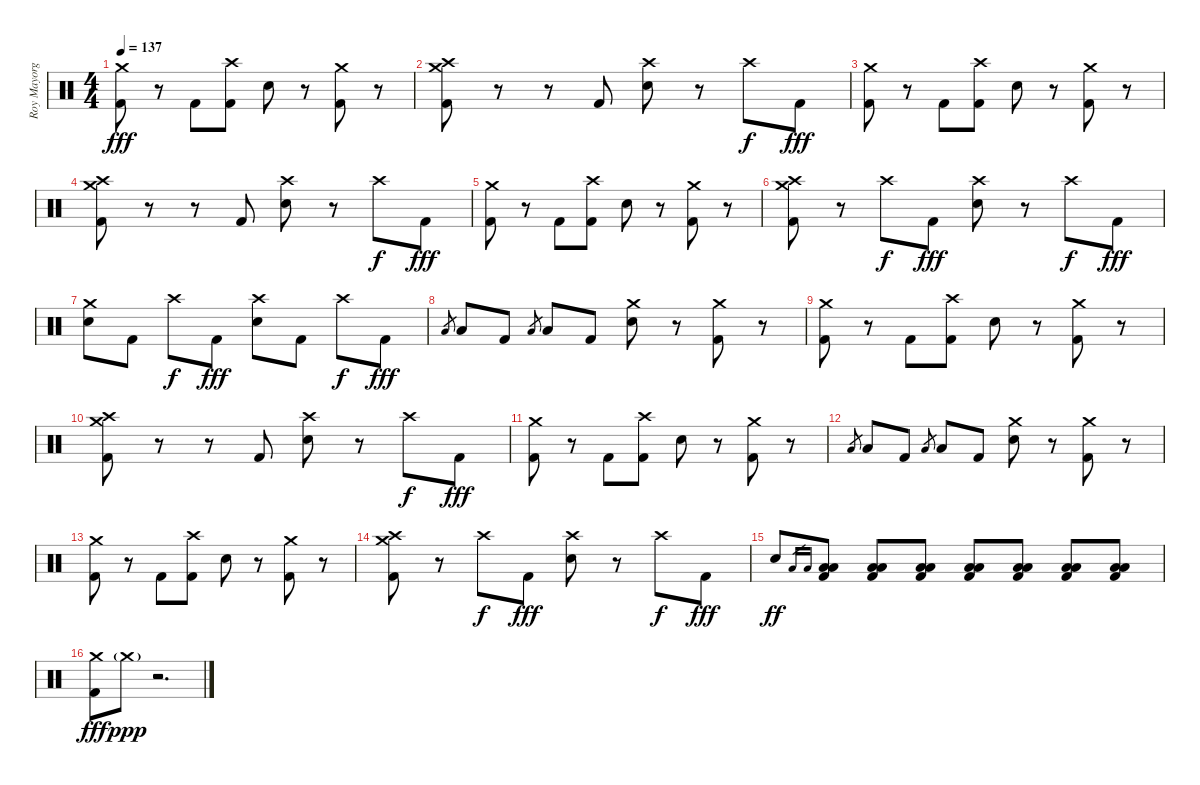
\track ("Roy Mayorga (Drums)" "Roy Mayorg") {instrument percussion}
\staff {score}
\articulation defaults
\ts (4 4)
\tempo 137
\clef neutral
\ks c
("Crash medium (hit)" "Kick (hit) 2").8{dy fff} r.8 "Kick (hit) 2".8 ("Crash high (hit)" "Kick (hit) 2").8 "Electric Snare (hit)".8 r.8 ("Crash medium (hit)" "Kick (hit) 2").8 r.8 |
("Crash medium (hit)" "Crash high (hit)" "Kick (hit) 2").8 r.8 r.8 "Kick (hit) 2".8 ("Crash high (hit)" "Electric Snare (hit)").8 r.8 "Crash high (hit)".8{dy f} "Kick (hit) 2".8{dy fff} |
("Crash medium (hit)" "Kick (hit) 2").8 r.8 "Kick (hit) 2".8 ("Crash high (hit)" "Kick (hit) 2").8 "Electric Snare (hit)".8 r.8 ("Crash medium (hit)" "Kick (hit) 2").8 r.8 |
("Crash medium (hit)" "Crash high (hit)" "Kick (hit) 2").8 r.8 r.8 "Kick (hit) 2".8 ("Crash high (hit)" "Electric Snare (hit)").8 r.8 "Crash high (hit)".8{dy f} "Kick (hit) 2".8{dy fff} |
("Crash medium (hit)" "Kick (hit) 2").8 r.8 "Kick (hit) 2".8 ("Crash high (hit)" "Kick (hit) 2").8 "Electric Snare (hit)".8 r.8 ("Crash medium (hit)" "Kick (hit) 2").8 r.8 |
("Crash medium (hit)" "Crash high (hit)" "Kick (hit) 2").8 r.8 "Crash high (hit)".8{dy f} "Kick (hit) 2".8{dy fff} ("Crash high (hit)" "Electric Snare (hit)").8 r.8 "Crash high (hit)".8{dy f} "Kick (hit) 2".8{dy fff} |
("Crash medium (hit)" "Electric Snare (hit)").8 "Kick (hit) 2".8 "Crash high (hit)".8{dy f} "Kick (hit) 2".8{dy fff} ("Crash high (hit)" "Electric Snare (hit)").8 "Kick (hit) 2".8 "Crash high (hit)".8{dy f} "Kick (hit) 2".8{dy fff} |
"Low Floor Tom (hit)".8{gr} "Low Floor Tom (hit)".8 "Kick (hit) 2".8 "Low Floor Tom (hit)".8{gr} "Low Floor Tom (hit)".8 "Kick (hit) 2".8 ("Crash medium (hit)" "Electric Snare (hit)").8 r.8 ("Crash medium (hit)" "Kick (hit) 2").8 r.8 |
("Crash medium (hit)" "Kick (hit) 2").8 r.8 "Kick (hit) 2".8 ("Crash high (hit)" "Kick (hit) 2").8 "Electric Snare (hit)".8 r.8 ("Crash medium (hit)" "Kick (hit) 2").8 r.8 |
("Crash medium (hit)" "Crash high (hit)" "Kick (hit) 2").8 r.8 r.8 "Kick (hit) 2".8 ("Crash high (hit)" "Electric Snare (hit)").8 r.8 "Crash high (hit)".8{dy f} "Kick (hit) 2".8{dy fff} |
("Crash medium (hit)" "Kick (hit) 2").8 r.8 "Kick (hit) 2".8 ("Crash high (hit)" "Kick (hit) 2").8 "Electric Snare (hit)".8 r.8 ("Crash medium (hit)" "Kick (hit) 2").8 r.8 |
"Low Floor Tom (hit)".8{gr} "Low Tom (hit)".8 "Kick (hit) 2".8 "Low Floor Tom (hit)".8{gr} "Low Tom (hit)".8 "Kick (hit) 2".8 ("Crash medium (hit)" "Electric Snare (hit)").8 r.8 ("Crash medium (hit)" "Kick (hit) 2").8 r.8 |
("Crash medium (hit)" "Kick (hit) 2").8 r.8 "Kick (hit) 2".8 ("Crash high (hit)" "Kick (hit) 2").8 "Electric Snare (hit)".8 r.8 ("Crash medium (hit)" "Kick (hit) 2").8 r.8 |
("Crash medium (hit)" "Crash high (hit)" "Kick (hit) 2").8 r.8 "Crash high (hit)".8{dy f} "Kick (hit) 2".8{dy fff} ("Crash high (hit)" "Electric Snare (hit)").8 r.8 "Crash high (hit)".8{dy f} "Kick (hit) 2".8{dy fff} |
"Electric Snare (hit)".8{dy ff} "Low Tom (hit)".16{gr} "Low Floor Tom (hit)".16{gr} ("Low Tom (hit)" "Low Floor Tom (hit)" "Kick (hit) 2").8 ("Low Tom (hit)" "Low Floor Tom (hit)" "Kick (hit) 2").8 ("Low Tom (hit)" "Low Floor Tom (hit)" "Kick (hit) 2").8 ("Low Tom (hit)" "Low Floor Tom (hit)" "Kick (hit) 2").8 ("Low Tom (hit)" "Low Floor Tom (hit)" "Kick (hit) 2").8 ("Low Tom (hit)" "Low Floor Tom (hit)" "Kick (hit) 2").8 ("Low Tom (hit)" "Low Floor Tom (hit)" "Kick (hit) 2").8 |
("Crash medium (hit)" "Kick (hit) 2").8{dy fff} "Crash medium (hit)"{g}.8{dy ppp} r.2{d}
